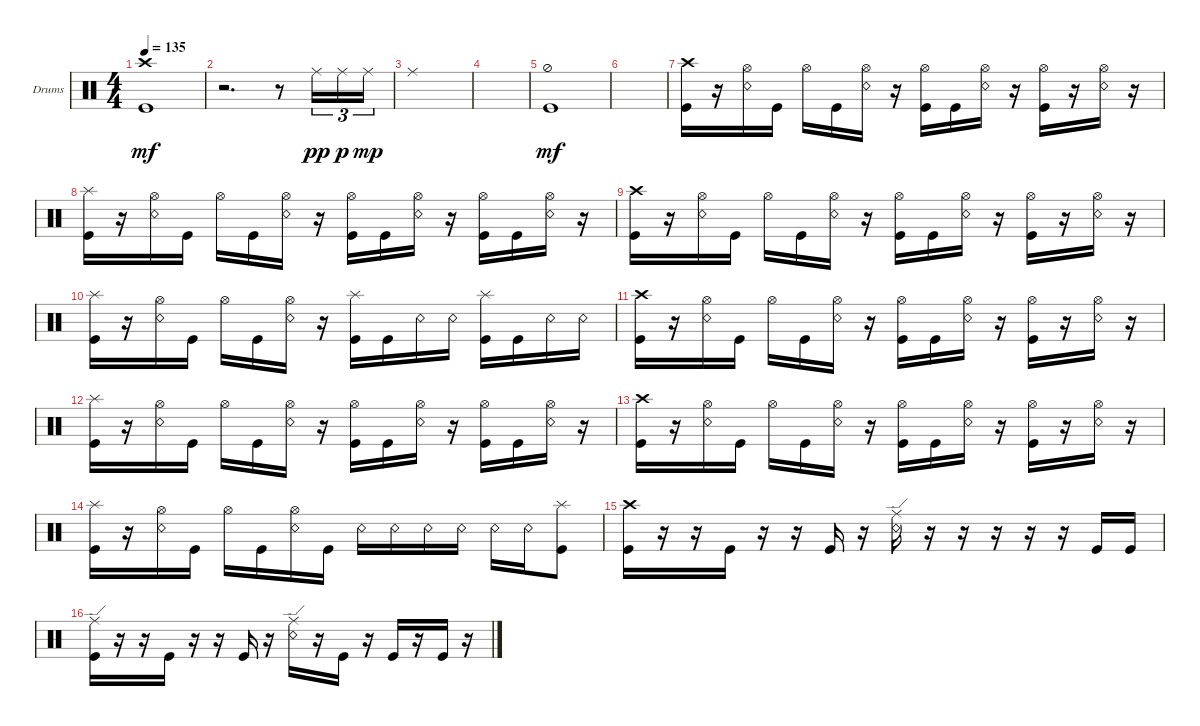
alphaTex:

\defaultSystemsLayout 4
\bracketExtendMode groupsimilarinstruments
\firstSystemTrackNameOrientation horizontal
\otherSystemsTrackNameOrientation horizontal
\track ("Drumkit" "Drums") {instrument percussion}
\staff {score}
\articulation defaults
\ts (4 4)
\tempo 135
\clef neutral
\ks c
("Kick (hit)" "Crash high (hit)").1{dy mf} |
r.2{d} r.8 "Ride (middle)".16{tu (3 2) dy pp} "Ride (middle)".16{tu (3 2) dy p} "Ride (middle)".16{tu (3 2) dy mp} |
"Ride (middle)".1 |
|
("Kick (hit)" "Hi-Hat (half)").1{dy mf} |
|
("Kick (hit)" "Crash high (hit)").16 r.16 ("Snare (rim shot)" "Hi-Hat (open)").16 "Kick (hit)".16 "Hi-Hat (open)".16 "Kick (hit)".16 ("Snare (rim shot)" "Hi-Hat (open)").16 r.16 ("Kick (hit)" "Hi-Hat (open)").16 "Kick (hit)".16 ("Snare (rim shot)" "Hi-Hat (open)").16 r.16 ("Kick (hit)" "Hi-Hat (open)").16 r.16 ("Snare (rim shot)" "Hi-Hat (open)").16 r.16 |
("Kick (hit)" "Splash (hit)").16 r.16 ("Snare (rim shot)" "Hi-Hat (open)").16 "Kick (hit)".16 "Hi-Hat (open)".16 "Kick (hit)".16 ("Snare (rim shot)" "Hi-Hat (open)").16 r.16 ("Kick (hit)" "Hi-Hat (open)").16 "Kick (hit)".16 ("Snare (rim shot)" "Hi-Hat (open)").16 r.16 ("Kick (hit)" "Hi-Hat (open)").16 "Kick (hit)".16 ("Snare (rim shot)" "Hi-Hat (open)").16 r.16 |
("Kick (hit)" "Crash high (hit)").16 r.16 ("Snare (rim shot)" "Hi-Hat (open)").16 "Kick (hit)".16 "Hi-Hat (open)".16 "Kick (hit)".16 ("Snare (rim shot)" "Hi-Hat (open)").16 r.16 ("Kick (hit)" "Hi-Hat (open)").16 "Kick (hit)".16 ("Snare (rim shot)" "Hi-Hat (open)").16 r.16 ("Kick (hit)" "Hi-Hat (open)").16 r.16 ("Snare (rim shot)" "Hi-Hat (open)").16 r.16 |
("Kick (hit)" "Splash (hit)").16 r.16 ("Snare (rim shot)" "Hi-Hat (open)").16 "Kick (hit)".16 "Hi-Hat (open)".16 "Kick (hit)".16 ("Snare (rim shot)" "Hi-Hat (open)").16 r.16 ("Kick (hit)" "Splash (hit)").16 "Kick (hit)".16 "Snare (rim shot)".16 "Snare (rim shot)".16 ("Kick (hit)" "Splash (hit)").16 "Kick (hit)".16 "Snare (rim shot)".16 "Snare (rim shot)".16 |
("Kick (hit)" "Crash high (hit)").16 r.16 ("Snare (rim shot)" "Hi-Hat (open)").16 "Kick (hit)".16 "Hi-Hat (open)".16 "Kick (hit)".16 ("Snare (rim shot)" "Hi-Hat (open)").16 r.16 ("Kick (hit)" "Hi-Hat (open)").16 "Kick (hit)".16 ("Snare (rim shot)" "Hi-Hat (open)").16 r.16 ("Kick (hit)" "Hi-Hat (open)").16 r.16 ("Snare (rim shot)" "Hi-Hat (open)").16 r.16 |
("Kick (hit)" "Splash (hit)").16 r.16 ("Snare (rim shot)" "Hi-Hat (open)").16 "Kick (hit)".16 "Hi-Hat (open)".16 "Kick (hit)".16 ("Snare (rim shot)" "Hi-Hat (open)").16 r.16 ("Kick (hit)" "Hi-Hat (open)").16 "Kick (hit)".16 ("Snare (rim shot)" "Hi-Hat (open)").16 r.16 ("Kick (hit)" "Hi-Hat (open)").16 "Kick (hit)".16 ("Snare (rim shot)" "Hi-Hat (open)").16 r.16 |
("Kick (hit)" "Crash high (hit)").16 r.16 ("Snare (rim shot)" "Hi-Hat (open)").16 "Kick (hit)".16 "Hi-Hat (open)".16 "Kick (hit)".16 ("Snare (rim shot)" "Hi-Hat (open)").16 r.16 ("Kick (hit)" "Hi-Hat (open)").16 "Kick (hit)".16 ("Snare (rim shot)" "Hi-Hat (open)").16 r.16 ("Kick (hit)" "Hi-Hat (open)").16 r.16 ("Snare (rim shot)" "Hi-Hat (open)").16 r.16 |
("Kick (hit)" "Splash (hit)").16 r.16 ("Snare (rim shot)" "Hi-Hat (open)").16 "Kick (hit)".16 "Hi-Hat (open)".16 "Kick (hit)".16 ("Snare (rim shot)" "Hi-Hat (open)").16 "Kick (hit)".16 "Snare (rim shot)".16 "Snare (rim shot)".16 "Snare (rim shot)".16 "Snare (rim shot)".16 "Snare (rim shot)".16 "Snare (rim shot)".16 ("Kick (hit)" "Splash (hit)").8 |
("Kick (hit)" "Crash high (hit)").16 r.16 r.16 "Kick (hit)".16 r.16 r.16 "Kick (hit)".16 r.16 ("Snare (rim shot)" "Ride (edge)").16 r.16 r.16 r.16 r.16 r.16 "Kick (hit)".16 "Kick (hit)".16 |
("Kick (hit)" "Ride (edge)").16 r.16 r.16 "Kick (hit)".16 r.16 r.16 "Kick (hit)".16 r.16 ("Snare (rim shot)" "Ride (edge)").16 r.16 "Kick (hit)".16 r.16 "Kick (hit)".16 r.16 "Kick (hit)".16 r.16
